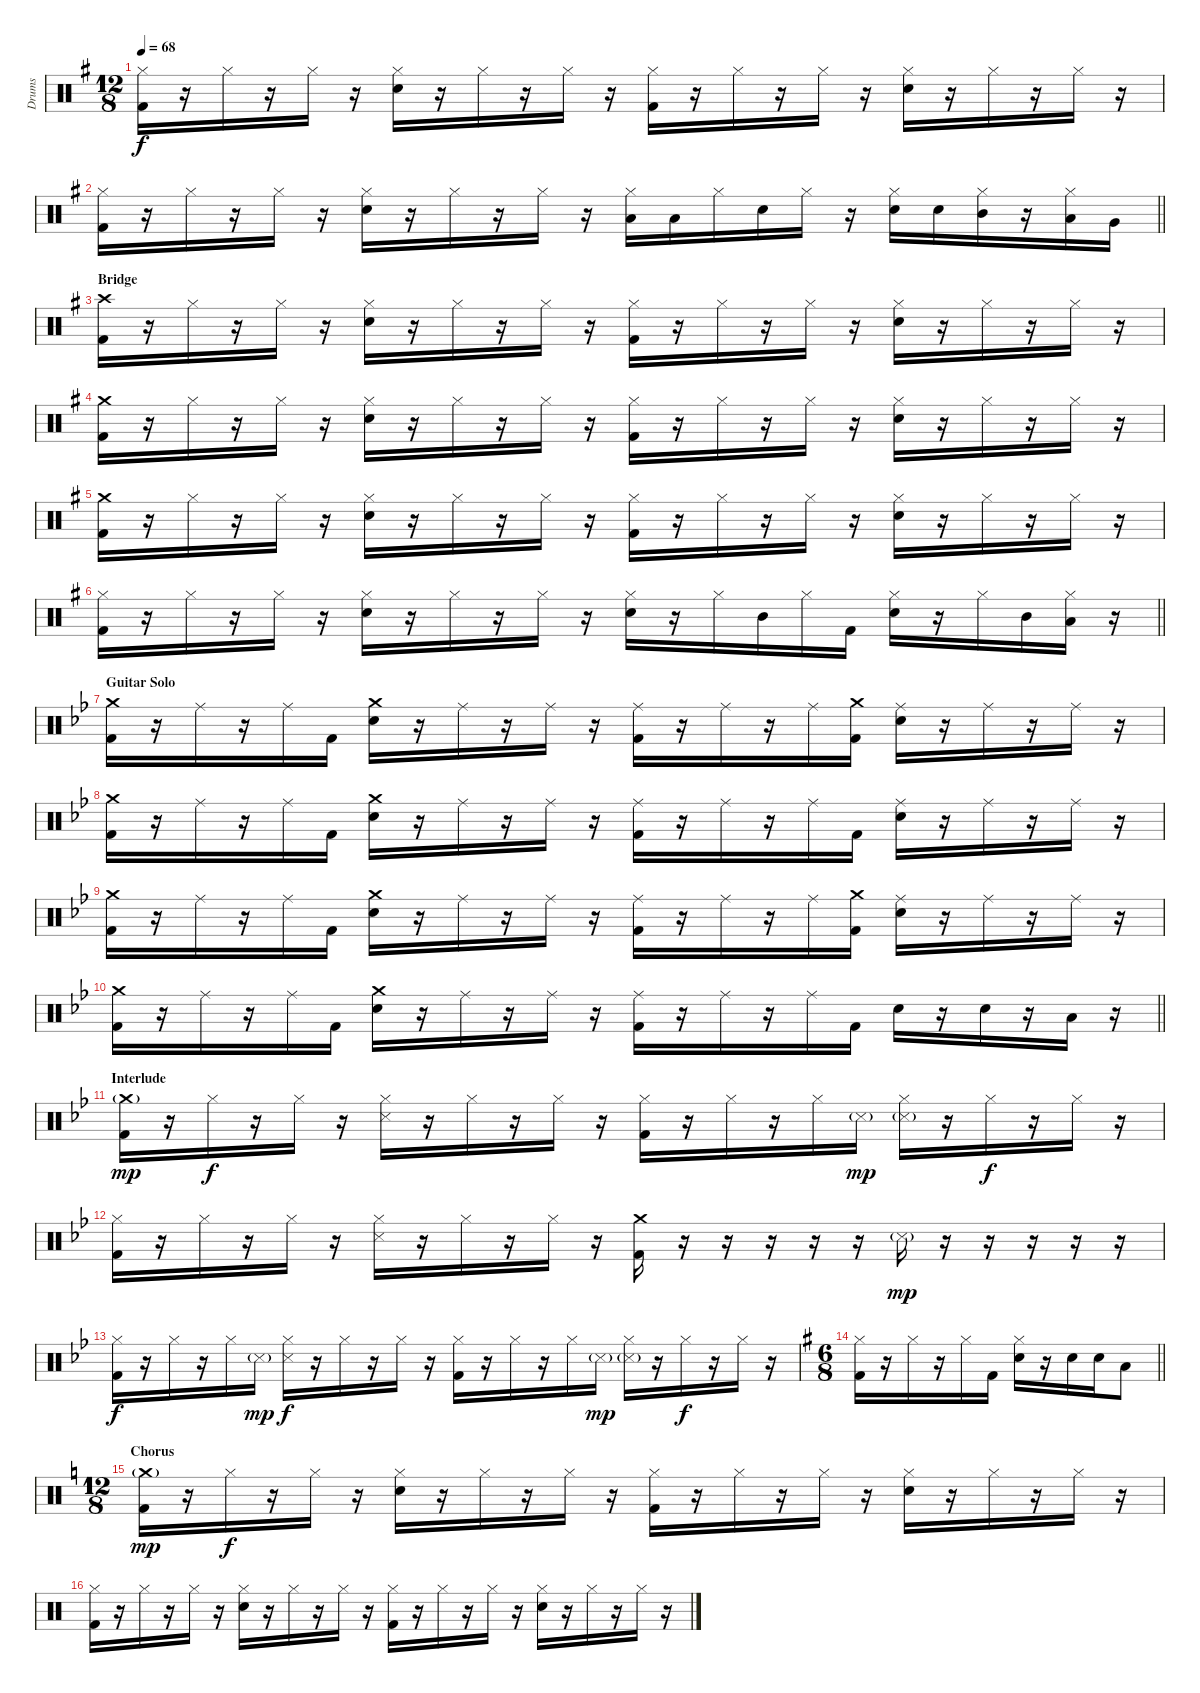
\track ("Drums" "Drums") {instrument percussion}
\staff {score}
\articulation defaults
\ts (12 8)
\tempo 68
\clef neutral
\ks g
("Hi-Hat (closed)" "Kick (hit) 2").16{dy f} r.16 "Hi-Hat (closed)".16 r.16 "Hi-Hat (closed)".16 r.16 ("Hi-Hat (closed)" "Snare (hit) 2").16 r.16 "Hi-Hat (closed)".16 r.16 "Hi-Hat (closed)".16 r.16 ("Hi-Hat (closed)" "Kick (hit) 2").16 r.16 "Hi-Hat (closed)".16 r.16 "Hi-Hat (closed)".16 r.16 ("Hi-Hat (closed)" "Snare (hit) 2").16 r.16 "Hi-Hat (closed)".16 r.16 "Hi-Hat (closed)".16 r.16 |
\barLineRight lightlight
("Hi-Hat (closed)" "Kick (hit) 2").16 r.16 "Hi-Hat (closed)".16 r.16 "Hi-Hat (closed)".16 r.16 ("Hi-Hat (closed)" "Snare (hit) 2").16 r.16 "Hi-Hat (closed)".16 r.16 "Hi-Hat (closed)".16 r.16 ("Hi-Hat (closed)" "Low Floor Tom (hit)").16 "Low Floor Tom (hit)".16 "Hi-Hat (closed)".16 "Snare (hit) 2".16 "Hi-Hat (closed)".16 r.16 ("Hi-Hat (closed)" "Snare (hit) 2").16 "Snare (hit) 2".16 ("Hi-Hat (closed)" "Mid Tom (hit)").16 r.16 ("Hi-Hat (closed)" "Low Tom (hit)").16 "Very Low Tom (hit)".16 |
\section ("" "Bridge")
("Crash high (hit)" "Kick (hit) 2").16 r.16 "Hi-Hat (closed)".16 r.16 "Hi-Hat (closed)".16 r.16 ("Hi-Hat (closed)" "Snare (hit) 2").16 r.16 "Hi-Hat (closed)".16 r.16 "Hi-Hat (closed)".16 r.16 ("Hi-Hat (closed)" "Kick (hit) 2").16 r.16 "Hi-Hat (closed)".16 r.16 "Hi-Hat (closed)".16 r.16 ("Hi-Hat (closed)" "Snare (hit) 2").16 r.16 "Hi-Hat (closed)".16 r.16 "Hi-Hat (closed)".16 r.16 |
("Crash medium (hit)" "Kick (hit) 2").16 r.16 "Hi-Hat (closed)".16 r.16 "Hi-Hat (closed)".16 r.16 ("Hi-Hat (closed)" "Snare (hit) 2").16 r.16 "Hi-Hat (closed)".16 r.16 "Hi-Hat (closed)".16 r.16 ("Hi-Hat (closed)" "Kick (hit) 2").16 r.16 "Hi-Hat (closed)".16 r.16 "Hi-Hat (closed)".16 r.16 ("Hi-Hat (closed)" "Snare (hit) 2").16 r.16 "Hi-Hat (closed)".16 r.16 "Hi-Hat (closed)".16 r.16 |
("Crash medium (hit)" "Kick (hit) 2").16 r.16 "Hi-Hat (closed)".16 r.16 "Hi-Hat (closed)".16 r.16 ("Hi-Hat (closed)" "Snare (hit) 2").16 r.16 "Hi-Hat (closed)".16 r.16 "Hi-Hat (closed)".16 r.16 ("Hi-Hat (closed)" "Kick (hit) 2").16 r.16 "Hi-Hat (closed)".16 r.16 "Hi-Hat (closed)".16 r.16 ("Hi-Hat (closed)" "Snare (hit) 2").16 r.16 "Hi-Hat (closed)".16 r.16 "Hi-Hat (closed)".16 r.16 |
\barLineRight lightlight
("Hi-Hat (closed)" "Kick (hit) 2").16 r.16 "Hi-Hat (closed)".16 r.16 "Hi-Hat (closed)".16 r.16 ("Hi-Hat (closed)" "Snare (hit) 2").16 r.16 "Hi-Hat (closed)".16 r.16 "Hi-Hat (closed)".16 r.16 ("Hi-Hat (closed)" "Snare (hit) 2").16 r.16 "Hi-Hat (closed)".16 "Mid Tom (hit)".16 "Hi-Hat (closed)".16 "Kick (hit) 2".16 ("Hi-Hat (closed)" "Snare (hit) 2").16 r.16 "Hi-Hat (closed)".16 "Mid Tom (hit)".16 ("Hi-Hat (closed)" "Low Tom (hit)").16 r.16 |
\section ("" "Guitar Solo")
\ks gminor
("Crash medium (hit)" "Kick (hit) 2").16 r.16 "Ride (middle)".16 r.16 "Ride (middle)".16 "Kick (hit) 2".16 ("Crash medium (hit)" "Snare (hit) 2").16 r.16 "Ride (middle)".16 r.16 "Ride (middle)".16 r.16 ("Ride (middle)" "Kick (hit) 2").16 r.16 "Ride (middle)".16 r.16 "Ride (middle)".16 ("Crash medium (hit)" "Kick (hit) 2").16 ("Ride (middle)" "Snare (hit) 2").16 r.16 "Ride (middle)".16 r.16 "Ride (middle)".16 r.16 |
("Crash medium (hit)" "Kick (hit) 2").16 r.16 "Ride (middle)".16 r.16 "Ride (middle)".16 "Kick (hit) 2".16 ("Crash medium (hit)" "Snare (hit) 2").16 r.16 "Ride (middle)".16 r.16 "Ride (middle)".16 r.16 ("Ride (middle)" "Kick (hit) 2").16 r.16 "Ride (middle)".16 r.16 "Ride (middle)".16 "Kick (hit) 2".16 ("Ride (middle)" "Snare (hit) 2").16 r.16 "Ride (middle)".16 r.16 "Ride (middle)".16 r.16 |
("Crash medium (hit)" "Kick (hit) 2").16 r.16 "Ride (middle)".16 r.16 "Ride (middle)".16 "Kick (hit) 2".16 ("Crash medium (hit)" "Snare (hit) 2").16 r.16 "Ride (middle)".16 r.16 "Ride (middle)".16 r.16 ("Ride (middle)" "Kick (hit) 2").16 r.16 "Ride (middle)".16 r.16 "Ride (middle)".16 ("Crash medium (hit)" "Kick (hit) 2").16 ("Ride (middle)" "Snare (hit) 2").16 r.16 "Ride (middle)".16 r.16 "Ride (middle)".16 r.16 |
\barLineRight lightlight
("Crash medium (hit)" "Kick (hit) 2").16 r.16 "Ride (middle)".16 r.16 "Ride (middle)".16 "Kick (hit) 2".16 ("Crash medium (hit)" "Snare (hit) 2").16 r.16 "Ride (middle)".16 r.16 "Ride (middle)".16 r.16 ("Ride (middle)" "Kick (hit) 2").16 r.16 "Ride (middle)".16 r.16 "Ride (middle)".16 "Kick (hit) 2".16 "Snare (hit) 2".16 r.16 "Snare (hit) 2".16 r.16 "Low Tom (hit)".16 r.16 |
\section ("" "Interlude")
("Crash medium (hit)"{g} "Kick (hit) 2").16{dy mp} r.16 "Hi-Hat (closed)".16{dy f} r.16 "Hi-Hat (closed)".16 r.16 ("Hi-Hat (closed)" "Snare (side stick) 3").16 r.16 "Hi-Hat (closed)".16 r.16 "Hi-Hat (closed)".16 r.16 ("Hi-Hat (closed)" "Kick (hit) 2").16 r.16 "Hi-Hat (closed)".16 r.16 "Hi-Hat (closed)".16 "Snare (side stick) 3"{g}.16{dy mp} ("Hi-Hat (closed)" "Snare (side stick) 3"{g}).16 r.16 "Hi-Hat (closed)".16{dy f} r.16 "Hi-Hat (closed)".16 r.16 |
("Hi-Hat (closed)" "Kick (hit) 2").16 r.16 "Hi-Hat (closed)".16 r.16 "Hi-Hat (closed)".16 r.16 ("Hi-Hat (closed)" "Snare (side stick) 3").16 r.16 "Hi-Hat (closed)".16 r.16 "Hi-Hat (closed)".16 r.16 ("Crash medium (hit)" "Kick (hit) 2").16 r.16 r.16 r.16 r.16 r.16 "Snare (side stick) 3"{g}.16{dy mp} r.16 r.16 r.16 r.16 r.16 |
("Hi-Hat (closed)" "Kick (hit) 2").16{dy f} r.16 "Hi-Hat (closed)".16 r.16 "Hi-Hat (closed)".16 "Snare (side stick) 3"{g}.16{dy mp} ("Hi-Hat (closed)" "Snare (side stick) 3").16{dy f} r.16 "Hi-Hat (closed)".16 r.16 "Hi-Hat (closed)".16 r.16 ("Hi-Hat (closed)" "Kick (hit) 2").16 r.16 "Hi-Hat (closed)".16 r.16 "Hi-Hat (closed)".16 "Snare (side stick) 3"{g}.16{dy mp} ("Hi-Hat (closed)" "Snare (side stick) 3"{g}).16 r.16 "Hi-Hat (closed)".16{dy f} r.16 "Hi-Hat (closed)".16 r.16 |
\ts (6 8)
\barLineRight lightlight
\ks g
("Hi-Hat (closed)" "Kick (hit) 2").16 r.16 "Hi-Hat (closed)".16 r.16 "Hi-Hat (closed)".16 "Kick (hit) 2".16 ("Hi-Hat (closed)" "Snare (hit) 2").16 r.16 "Snare (hit) 2".16 "Snare (hit) 2".16 "Low Tom (hit)".8 |
\ts (12 8)
\section ("" "Chorus")
\ks c
("Crash medium (hit)"{g} "Kick (hit) 2").16{dy mp} r.16 "Hi-Hat (closed)".16{dy f} r.16 "Hi-Hat (closed)".16 r.16 ("Hi-Hat (closed)" "Snare (hit) 2").16 r.16 "Hi-Hat (closed)".16 r.16 "Hi-Hat (closed)".16 r.16 ("Hi-Hat (closed)" "Kick (hit) 2").16 r.16 "Hi-Hat (closed)".16 r.16 "Hi-Hat (closed)".16 r.16 ("Hi-Hat (closed)" "Snare (hit) 2").16 r.16 "Hi-Hat (closed)".16 r.16 "Hi-Hat (closed)".16 r.16 |
("Hi-Hat (closed)" "Kick (hit) 2").16 r.16 "Hi-Hat (closed)".16 r.16 "Hi-Hat (closed)".16 r.16 ("Hi-Hat (closed)" "Snare (hit) 2").16 r.16 "Hi-Hat (closed)".16 r.16 "Hi-Hat (closed)".16 r.16 ("Hi-Hat (closed)" "Kick (hit) 2").16 r.16 "Hi-Hat (closed)".16 r.16 "Hi-Hat (closed)".16 r.16 ("Hi-Hat (closed)" "Snare (hit) 2").16 r.16 "Hi-Hat (closed)".16 r.16 "Hi-Hat (closed)".16 r.16
